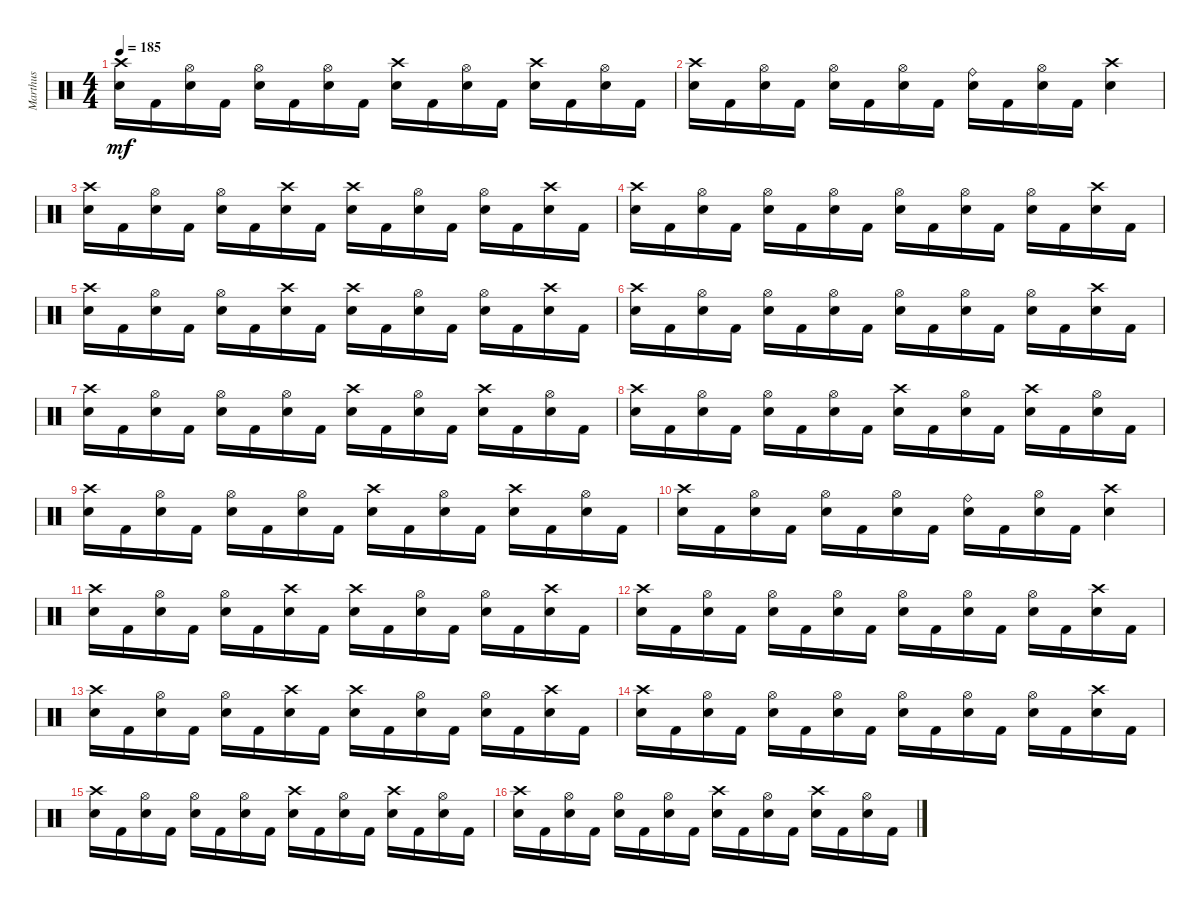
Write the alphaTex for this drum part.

\track ("Marthus" "Marthus") {instrument percussion}
\staff {score}
\articulation defaults
\ts (4 4)
\tempo 185
\clef neutral
\ks c
("Crash high (hit)" "Electric Snare (hit)").16{dy mf} "Kick (hit) 2".16 ("Hi-Hat (open)" "Electric Snare (hit)").16 "Kick (hit) 2".16 ("Hi-Hat (open)" "Electric Snare (hit)").16 "Kick (hit) 2".16 ("Hi-Hat (open)" "Electric Snare (hit)").16 "Kick (hit) 2".16 ("Crash high (hit)" "Electric Snare (hit)").16 "Kick (hit) 2".16 ("Hi-Hat (open)" "Electric Snare (hit)").16 "Kick (hit) 2".16 ("Crash high (hit)" "Electric Snare (hit)").16 "Kick (hit) 2".16 ("Hi-Hat (open)" "Electric Snare (hit)").16 "Kick (hit) 2".16 |
("Crash high (hit)" "Electric Snare (hit)").16 "Kick (hit) 2".16 ("Hi-Hat (open)" "Electric Snare (hit)").16 "Kick (hit) 2".16 ("Hi-Hat (open)" "Electric Snare (hit)").16 "Kick (hit) 2".16 ("Hi-Hat (open)" "Electric Snare (hit)").16 "Kick (hit) 2".16 ("Ride (bell)" "Electric Snare (hit)").16 "Kick (hit) 2".16 ("Hi-Hat (open)" "Electric Snare (hit)").16 "Kick (hit) 2".16 ("Crash high (hit)" "Electric Snare (hit)").4 |
("Crash high (hit)" "Electric Snare (hit)").16 "Kick (hit) 2".16 ("Hi-Hat (open)" "Electric Snare (hit)").16 "Kick (hit) 2".16 ("Hi-Hat (open)" "Electric Snare (hit)").16 "Kick (hit) 2".16 ("Crash high (hit)" "Electric Snare (hit)").16 "Kick (hit) 2".16 ("Crash high (hit)" "Electric Snare (hit)").16 "Kick (hit) 2".16 ("Hi-Hat (open)" "Electric Snare (hit)").16 "Kick (hit) 2".16 ("Hi-Hat (open)" "Electric Snare (hit)").16 "Kick (hit) 2".16 ("Crash high (hit)" "Electric Snare (hit)").16 "Kick (hit) 2".16 |
("Crash high (hit)" "Electric Snare (hit)").16 "Kick (hit) 2".16 ("Hi-Hat (open)" "Electric Snare (hit)").16 "Kick (hit) 2".16 ("Hi-Hat (open)" "Electric Snare (hit)").16 "Kick (hit) 2".16 ("Hi-Hat (open)" "Electric Snare (hit)").16 "Kick (hit) 2".16 ("Hi-Hat (open)" "Electric Snare (hit)").16 "Kick (hit) 2".16 ("Hi-Hat (open)" "Electric Snare (hit)").16 "Kick (hit) 2".16 ("Hi-Hat (open)" "Electric Snare (hit)").16 "Kick (hit) 2".16 ("Crash high (hit)" "Electric Snare (hit)").16 "Kick (hit) 2".16 |
("Crash high (hit)" "Electric Snare (hit)").16 "Kick (hit) 2".16 ("Hi-Hat (open)" "Electric Snare (hit)").16 "Kick (hit) 2".16 ("Hi-Hat (open)" "Electric Snare (hit)").16 "Kick (hit) 2".16 ("Crash high (hit)" "Electric Snare (hit)").16 "Kick (hit) 2".16 ("Crash high (hit)" "Electric Snare (hit)").16 "Kick (hit) 2".16 ("Hi-Hat (open)" "Electric Snare (hit)").16 "Kick (hit) 2".16 ("Hi-Hat (open)" "Electric Snare (hit)").16 "Kick (hit) 2".16 ("Crash high (hit)" "Electric Snare (hit)").16 "Kick (hit) 2".16 |
("Crash high (hit)" "Electric Snare (hit)").16 "Kick (hit) 2".16 ("Hi-Hat (open)" "Electric Snare (hit)").16 "Kick (hit) 2".16 ("Hi-Hat (open)" "Electric Snare (hit)").16 "Kick (hit) 2".16 ("Hi-Hat (open)" "Electric Snare (hit)").16 "Kick (hit) 2".16 ("Hi-Hat (open)" "Electric Snare (hit)").16 "Kick (hit) 2".16 ("Hi-Hat (open)" "Electric Snare (hit)").16 "Kick (hit) 2".16 ("Hi-Hat (open)" "Electric Snare (hit)").16 "Kick (hit) 2".16 ("Crash high (hit)" "Electric Snare (hit)").16 "Kick (hit) 2".16 |
("Crash high (hit)" "Electric Snare (hit)").16 "Kick (hit) 2".16 ("Hi-Hat (open)" "Electric Snare (hit)").16 "Kick (hit) 2".16 ("Hi-Hat (open)" "Electric Snare (hit)").16 "Kick (hit) 2".16 ("Hi-Hat (open)" "Electric Snare (hit)").16 "Kick (hit) 2".16 ("Crash high (hit)" "Electric Snare (hit)").16 "Kick (hit) 2".16 ("Hi-Hat (open)" "Electric Snare (hit)").16 "Kick (hit) 2".16 ("Crash high (hit)" "Electric Snare (hit)").16 "Kick (hit) 2".16 ("Hi-Hat (open)" "Electric Snare (hit)").16 "Kick (hit) 2".16 |
("Crash high (hit)" "Electric Snare (hit)").16 "Kick (hit) 2".16 ("Hi-Hat (open)" "Electric Snare (hit)").16 "Kick (hit) 2".16 ("Hi-Hat (open)" "Electric Snare (hit)").16 "Kick (hit) 2".16 ("Hi-Hat (open)" "Electric Snare (hit)").16 "Kick (hit) 2".16 ("Crash high (hit)" "Electric Snare (hit)").16 "Kick (hit) 2".16 ("Hi-Hat (open)" "Electric Snare (hit)").16 "Kick (hit) 2".16 ("Crash high (hit)" "Electric Snare (hit)").16 "Kick (hit) 2".16 ("Hi-Hat (open)" "Electric Snare (hit)").16 "Kick (hit) 2".16 |
("Crash high (hit)" "Electric Snare (hit)").16 "Kick (hit) 2".16 ("Hi-Hat (open)" "Electric Snare (hit)").16 "Kick (hit) 2".16 ("Hi-Hat (open)" "Electric Snare (hit)").16 "Kick (hit) 2".16 ("Hi-Hat (open)" "Electric Snare (hit)").16 "Kick (hit) 2".16 ("Crash high (hit)" "Electric Snare (hit)").16 "Kick (hit) 2".16 ("Hi-Hat (open)" "Electric Snare (hit)").16 "Kick (hit) 2".16 ("Crash high (hit)" "Electric Snare (hit)").16 "Kick (hit) 2".16 ("Hi-Hat (open)" "Electric Snare (hit)").16 "Kick (hit) 2".16 |
("Crash high (hit)" "Electric Snare (hit)").16 "Kick (hit) 2".16 ("Hi-Hat (open)" "Electric Snare (hit)").16 "Kick (hit) 2".16 ("Hi-Hat (open)" "Electric Snare (hit)").16 "Kick (hit) 2".16 ("Hi-Hat (open)" "Electric Snare (hit)").16 "Kick (hit) 2".16 ("Ride (bell)" "Electric Snare (hit)").16 "Kick (hit) 2".16 ("Hi-Hat (open)" "Electric Snare (hit)").16 "Kick (hit) 2".16 ("Crash high (hit)" "Electric Snare (hit)").4 |
("Crash high (hit)" "Electric Snare (hit)").16 "Kick (hit) 2".16 ("Hi-Hat (open)" "Electric Snare (hit)").16 "Kick (hit) 2".16 ("Hi-Hat (open)" "Electric Snare (hit)").16 "Kick (hit) 2".16 ("Crash high (hit)" "Electric Snare (hit)").16 "Kick (hit) 2".16 ("Crash high (hit)" "Electric Snare (hit)").16 "Kick (hit) 2".16 ("Hi-Hat (open)" "Electric Snare (hit)").16 "Kick (hit) 2".16 ("Hi-Hat (open)" "Electric Snare (hit)").16 "Kick (hit) 2".16 ("Crash high (hit)" "Electric Snare (hit)").16 "Kick (hit) 2".16 |
("Crash high (hit)" "Electric Snare (hit)").16 "Kick (hit) 2".16 ("Hi-Hat (open)" "Electric Snare (hit)").16 "Kick (hit) 2".16 ("Hi-Hat (open)" "Electric Snare (hit)").16 "Kick (hit) 2".16 ("Hi-Hat (open)" "Electric Snare (hit)").16 "Kick (hit) 2".16 ("Hi-Hat (open)" "Electric Snare (hit)").16 "Kick (hit) 2".16 ("Hi-Hat (open)" "Electric Snare (hit)").16 "Kick (hit) 2".16 ("Hi-Hat (open)" "Electric Snare (hit)").16 "Kick (hit) 2".16 ("Crash high (hit)" "Electric Snare (hit)").16 "Kick (hit) 2".16 |
("Crash high (hit)" "Electric Snare (hit)").16 "Kick (hit) 2".16 ("Hi-Hat (open)" "Electric Snare (hit)").16 "Kick (hit) 2".16 ("Hi-Hat (open)" "Electric Snare (hit)").16 "Kick (hit) 2".16 ("Crash high (hit)" "Electric Snare (hit)").16 "Kick (hit) 2".16 ("Crash high (hit)" "Electric Snare (hit)").16 "Kick (hit) 2".16 ("Hi-Hat (open)" "Electric Snare (hit)").16 "Kick (hit) 2".16 ("Hi-Hat (open)" "Electric Snare (hit)").16 "Kick (hit) 2".16 ("Crash high (hit)" "Electric Snare (hit)").16 "Kick (hit) 2".16 |
("Crash high (hit)" "Electric Snare (hit)").16 "Kick (hit) 2".16 ("Hi-Hat (open)" "Electric Snare (hit)").16 "Kick (hit) 2".16 ("Hi-Hat (open)" "Electric Snare (hit)").16 "Kick (hit) 2".16 ("Hi-Hat (open)" "Electric Snare (hit)").16 "Kick (hit) 2".16 ("Hi-Hat (open)" "Electric Snare (hit)").16 "Kick (hit) 2".16 ("Hi-Hat (open)" "Electric Snare (hit)").16 "Kick (hit) 2".16 ("Hi-Hat (open)" "Electric Snare (hit)").16 "Kick (hit) 2".16 ("Crash high (hit)" "Electric Snare (hit)").16 "Kick (hit) 2".16 |
("Crash high (hit)" "Electric Snare (hit)").16 "Kick (hit) 2".16 ("Hi-Hat (open)" "Electric Snare (hit)").16 "Kick (hit) 2".16 ("Hi-Hat (open)" "Electric Snare (hit)").16 "Kick (hit) 2".16 ("Hi-Hat (open)" "Electric Snare (hit)").16 "Kick (hit) 2".16 ("Crash high (hit)" "Electric Snare (hit)").16 "Kick (hit) 2".16 ("Hi-Hat (open)" "Electric Snare (hit)").16 "Kick (hit) 2".16 ("Crash high (hit)" "Electric Snare (hit)").16 "Kick (hit) 2".16 ("Hi-Hat (open)" "Electric Snare (hit)").16 "Kick (hit) 2".16 |
("Crash high (hit)" "Electric Snare (hit)").16 "Kick (hit) 2".16 ("Hi-Hat (open)" "Electric Snare (hit)").16 "Kick (hit) 2".16 ("Hi-Hat (open)" "Electric Snare (hit)").16 "Kick (hit) 2".16 ("Hi-Hat (open)" "Electric Snare (hit)").16 "Kick (hit) 2".16 ("Crash high (hit)" "Electric Snare (hit)").16 "Kick (hit) 2".16 ("Hi-Hat (open)" "Electric Snare (hit)").16 "Kick (hit) 2".16 ("Crash high (hit)" "Electric Snare (hit)").16 "Kick (hit) 2".16 ("Hi-Hat (open)" "Electric Snare (hit)").16 "Kick (hit) 2".16
